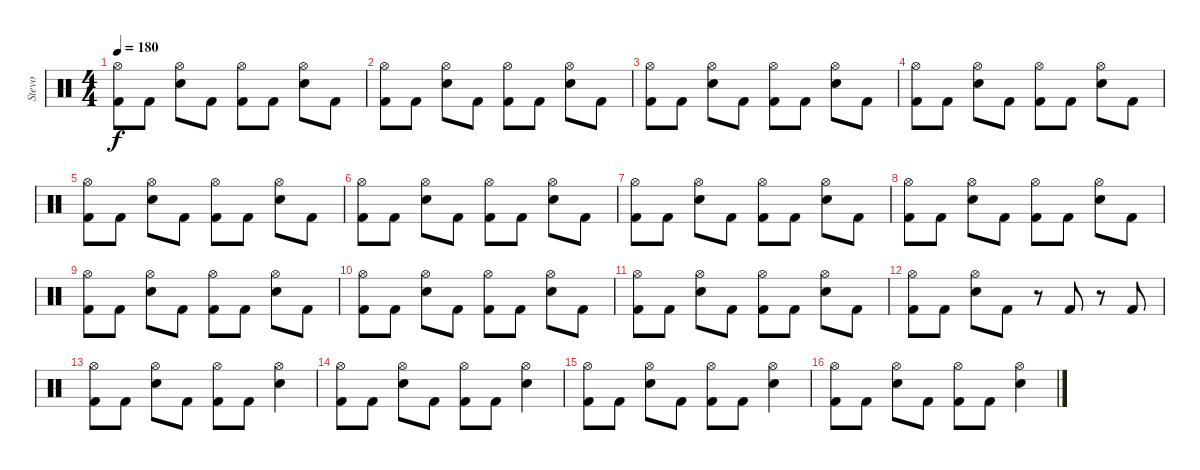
\track ("Stevo" "Stevo") {instrument percussion}
\staff {score}
\articulation defaults
\ts (4 4)
\tempo 180
\clef neutral
\ks c
("Hi-Hat (open)" "Kick (hit) 2").8{dy f} "Kick (hit) 2".8 ("Hi-Hat (open)" "Snare (hit) 2").8 "Kick (hit) 2".8 ("Hi-Hat (open)" "Kick (hit) 2").8 "Kick (hit) 2".8 ("Hi-Hat (open)" "Snare (hit) 2").8 "Kick (hit) 2".8 |
("Hi-Hat (open)" "Kick (hit) 2").8 "Kick (hit) 2".8 ("Hi-Hat (open)" "Snare (hit) 2").8 "Kick (hit) 2".8 ("Hi-Hat (open)" "Kick (hit) 2").8 "Kick (hit) 2".8 ("Hi-Hat (open)" "Snare (hit) 2").8 "Kick (hit) 2".8 |
("Hi-Hat (open)" "Kick (hit) 2").8 "Kick (hit) 2".8 ("Hi-Hat (open)" "Snare (hit) 2").8 "Kick (hit) 2".8 ("Hi-Hat (open)" "Kick (hit) 2").8 "Kick (hit) 2".8 ("Hi-Hat (open)" "Snare (hit) 2").8 "Kick (hit) 2".8 |
("Hi-Hat (open)" "Kick (hit) 2").8 "Kick (hit) 2".8 ("Hi-Hat (open)" "Snare (hit) 2").8 "Kick (hit) 2".8 ("Hi-Hat (open)" "Kick (hit) 2").8 "Kick (hit) 2".8 ("Hi-Hat (open)" "Snare (hit) 2").8 "Kick (hit) 2".8 |
("Hi-Hat (open)" "Kick (hit) 2").8 "Kick (hit) 2".8 ("Hi-Hat (open)" "Snare (hit) 2").8 "Kick (hit) 2".8 ("Hi-Hat (open)" "Kick (hit) 2").8 "Kick (hit) 2".8 ("Hi-Hat (open)" "Snare (hit) 2").8 "Kick (hit) 2".8 |
("Hi-Hat (open)" "Kick (hit) 2").8 "Kick (hit) 2".8 ("Hi-Hat (open)" "Snare (hit) 2").8 "Kick (hit) 2".8 ("Hi-Hat (open)" "Kick (hit) 2").8 "Kick (hit) 2".8 ("Hi-Hat (open)" "Snare (hit) 2").8 "Kick (hit) 2".8 |
("Hi-Hat (open)" "Kick (hit) 2").8 "Kick (hit) 2".8 ("Hi-Hat (open)" "Snare (hit) 2").8 "Kick (hit) 2".8 ("Hi-Hat (open)" "Kick (hit) 2").8 "Kick (hit) 2".8 ("Hi-Hat (open)" "Snare (hit) 2").8 "Kick (hit) 2".8 |
("Hi-Hat (open)" "Kick (hit) 2").8 "Kick (hit) 2".8 ("Hi-Hat (open)" "Snare (hit) 2").8 "Kick (hit) 2".8 ("Hi-Hat (open)" "Kick (hit) 2").8 "Kick (hit) 2".8 ("Hi-Hat (open)" "Snare (hit) 2").8 "Kick (hit) 2".8 |
("Hi-Hat (open)" "Kick (hit) 2").8 "Kick (hit) 2".8 ("Hi-Hat (open)" "Snare (hit) 2").8 "Kick (hit) 2".8 ("Hi-Hat (open)" "Kick (hit) 2").8 "Kick (hit) 2".8 ("Hi-Hat (open)" "Snare (hit) 2").8 "Kick (hit) 2".8 |
("Hi-Hat (open)" "Kick (hit) 2").8 "Kick (hit) 2".8 ("Hi-Hat (open)" "Snare (hit) 2").8 "Kick (hit) 2".8 ("Hi-Hat (open)" "Kick (hit) 2").8 "Kick (hit) 2".8 ("Hi-Hat (open)" "Snare (hit) 2").8 "Kick (hit) 2".8 |
("Hi-Hat (open)" "Kick (hit) 2").8 "Kick (hit) 2".8 ("Hi-Hat (open)" "Snare (hit) 2").8 "Kick (hit) 2".8 ("Hi-Hat (open)" "Kick (hit) 2").8 "Kick (hit) 2".8 ("Hi-Hat (open)" "Snare (hit) 2").8 "Kick (hit) 2".8 |
("Hi-Hat (open)" "Kick (hit) 2").8 "Kick (hit) 2".8 ("Hi-Hat (open)" "Snare (hit) 2").8 "Kick (hit) 2".8 r.8 "Kick (hit) 2".8 r.8 "Kick (hit) 2".8 |
("Hi-Hat (open)" "Kick (hit) 2").8 "Kick (hit) 2".8 ("Hi-Hat (open)" "Snare (hit) 2").8 "Kick (hit) 2".8 ("Hi-Hat (open)" "Kick (hit) 2").8 "Kick (hit) 2".8 ("Hi-Hat (open)" "Snare (hit) 2").4 |
("Hi-Hat (open)" "Kick (hit) 2").8 "Kick (hit) 2".8 ("Hi-Hat (open)" "Snare (hit) 2").8 "Kick (hit) 2".8 ("Hi-Hat (open)" "Kick (hit) 2").8 "Kick (hit) 2".8 ("Hi-Hat (open)" "Snare (hit) 2").4 |
("Hi-Hat (open)" "Kick (hit) 2").8 "Kick (hit) 2".8 ("Hi-Hat (open)" "Snare (hit) 2").8 "Kick (hit) 2".8 ("Hi-Hat (open)" "Kick (hit) 2").8 "Kick (hit) 2".8 ("Hi-Hat (open)" "Snare (hit) 2").4 |
("Hi-Hat (open)" "Kick (hit) 2").8 "Kick (hit) 2".8 ("Hi-Hat (open)" "Snare (hit) 2").8 "Kick (hit) 2".8 ("Hi-Hat (open)" "Kick (hit) 2").8 "Kick (hit) 2".8 ("Hi-Hat (open)" "Snare (hit) 2").4
